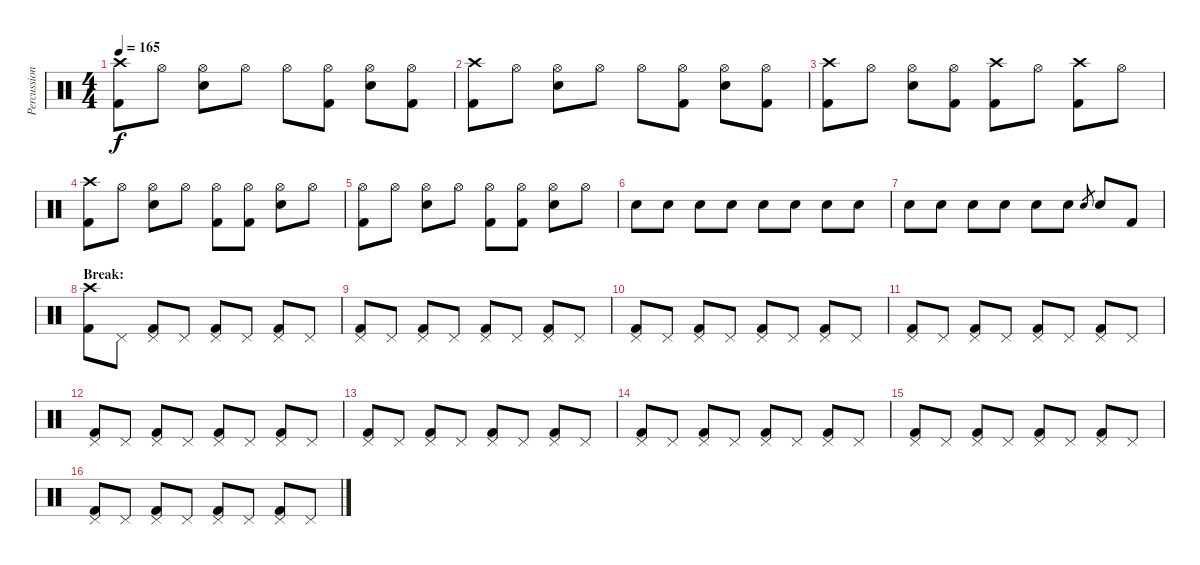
\track ("Percussion" "Percussion") {instrument percussion}
\staff {score}
\articulation defaults
\ts (4 4)
\tempo 165
\clef neutral
\ks c
("Crash high (hit)" "Kick (hit) 2").8{dy f} "Hi-Hat (open)".8 ("Hi-Hat (open)" "Snare (hit) 2").8 "Hi-Hat (open)".8 "Hi-Hat (open)".8 ("Hi-Hat (open)" "Kick (hit) 2").8 ("Hi-Hat (open)" "Snare (hit) 2").8 ("Hi-Hat (open)" "Kick (hit) 2").8 |
("Crash high (hit)" "Kick (hit) 2").8 "Hi-Hat (open)".8 ("Hi-Hat (open)" "Snare (hit) 2").8 "Hi-Hat (open)".8 "Hi-Hat (open)".8 ("Hi-Hat (open)" "Kick (hit) 2").8 ("Hi-Hat (open)" "Snare (hit) 2").8 ("Hi-Hat (open)" "Kick (hit) 2").8 |
("Crash high (hit)" "Kick (hit) 2").8 "Hi-Hat (open)".8 ("Hi-Hat (open)" "Snare (hit) 2").8 ("Hi-Hat (open)" "Kick (hit) 2").8 ("Crash high (hit)" "Kick (hit) 2").8 "Hi-Hat (open)".8 ("Crash high (hit)" "Kick (hit) 2").8 "Hi-Hat (open)".8 |
("Crash high (hit)" "Kick (hit) 2").8 "Hi-Hat (open)".8 ("Hi-Hat (open)" "Snare (hit) 2").8 "Hi-Hat (open)".8 ("Hi-Hat (open)" "Kick (hit) 2").8 ("Hi-Hat (open)" "Kick (hit) 2").8 ("Hi-Hat (open)" "Snare (hit) 2").8 "Hi-Hat (open)".8 |
("Hi-Hat (open)" "Kick (hit) 2").8 "Hi-Hat (open)".8 ("Hi-Hat (open)" "Snare (hit) 2").8 "Hi-Hat (open)".8 ("Hi-Hat (open)" "Kick (hit) 2").8 ("Hi-Hat (open)" "Kick (hit) 2").8 ("Hi-Hat (open)" "Snare (hit) 2").8 "Hi-Hat (open)".8 |
"Snare (hit) 2".8 "Snare (hit) 2".8 "Snare (hit) 2".8 "Snare (hit) 2".8 "Snare (hit) 2".8 "Snare (hit) 2".8 "Snare (hit) 2".8 "Snare (hit) 2".8 |
"Snare (hit) 2".8 "Snare (hit) 2".8 "Snare (hit) 2".8 "Snare (hit) 2".8 "Snare (hit) 2".8 "Snare (hit) 2".8 "Snare (hit) 2".8{gr} "Snare (hit) 2".8 "Kick (hit) 2".8 |
\section ("" "Break:")
("Crash high (hit)" "Kick (hit) 2").8 "Pedal Hi-Hat (hit)".8 ("Pedal Hi-Hat (hit)" "Kick (hit) 2").8 "Pedal Hi-Hat (hit)".8 ("Pedal Hi-Hat (hit)" "Kick (hit) 2").8 "Pedal Hi-Hat (hit)".8 ("Pedal Hi-Hat (hit)" "Kick (hit) 2").8 "Pedal Hi-Hat (hit)".8 |
("Pedal Hi-Hat (hit)" "Kick (hit) 2").8 "Pedal Hi-Hat (hit)".8 ("Pedal Hi-Hat (hit)" "Kick (hit) 2").8 "Pedal Hi-Hat (hit)".8 ("Pedal Hi-Hat (hit)" "Kick (hit) 2").8 "Pedal Hi-Hat (hit)".8 ("Pedal Hi-Hat (hit)" "Kick (hit) 2").8 "Pedal Hi-Hat (hit)".8 |
("Pedal Hi-Hat (hit)" "Kick (hit) 2").8 "Pedal Hi-Hat (hit)".8 ("Pedal Hi-Hat (hit)" "Kick (hit) 2").8 "Pedal Hi-Hat (hit)".8 ("Pedal Hi-Hat (hit)" "Kick (hit) 2").8 "Pedal Hi-Hat (hit)".8 ("Pedal Hi-Hat (hit)" "Kick (hit) 2").8 "Pedal Hi-Hat (hit)".8 |
("Pedal Hi-Hat (hit)" "Kick (hit) 2").8 "Pedal Hi-Hat (hit)".8 ("Pedal Hi-Hat (hit)" "Kick (hit) 2").8 "Pedal Hi-Hat (hit)".8 ("Pedal Hi-Hat (hit)" "Kick (hit) 2").8 "Pedal Hi-Hat (hit)".8 ("Pedal Hi-Hat (hit)" "Kick (hit) 2").8 "Pedal Hi-Hat (hit)".8 |
("Pedal Hi-Hat (hit)" "Kick (hit) 2").8 "Pedal Hi-Hat (hit)".8 ("Pedal Hi-Hat (hit)" "Kick (hit) 2").8 "Pedal Hi-Hat (hit)".8 ("Pedal Hi-Hat (hit)" "Kick (hit) 2").8 "Pedal Hi-Hat (hit)".8 ("Pedal Hi-Hat (hit)" "Kick (hit) 2").8 "Pedal Hi-Hat (hit)".8 |
("Pedal Hi-Hat (hit)" "Kick (hit) 2").8 "Pedal Hi-Hat (hit)".8 ("Pedal Hi-Hat (hit)" "Kick (hit) 2").8 "Pedal Hi-Hat (hit)".8 ("Pedal Hi-Hat (hit)" "Kick (hit) 2").8 "Pedal Hi-Hat (hit)".8 ("Pedal Hi-Hat (hit)" "Kick (hit) 2").8 "Pedal Hi-Hat (hit)".8 |
("Pedal Hi-Hat (hit)" "Kick (hit) 2").8 "Pedal Hi-Hat (hit)".8 ("Pedal Hi-Hat (hit)" "Kick (hit) 2").8 "Pedal Hi-Hat (hit)".8 ("Pedal Hi-Hat (hit)" "Kick (hit) 2").8 "Pedal Hi-Hat (hit)".8 ("Pedal Hi-Hat (hit)" "Kick (hit) 2").8 "Pedal Hi-Hat (hit)".8 |
("Pedal Hi-Hat (hit)" "Kick (hit) 2").8 "Pedal Hi-Hat (hit)".8 ("Pedal Hi-Hat (hit)" "Kick (hit) 2").8 "Pedal Hi-Hat (hit)".8 ("Pedal Hi-Hat (hit)" "Kick (hit) 2").8 "Pedal Hi-Hat (hit)".8 ("Pedal Hi-Hat (hit)" "Kick (hit) 2").8 "Pedal Hi-Hat (hit)".8 |
("Pedal Hi-Hat (hit)" "Kick (hit) 2").8 "Pedal Hi-Hat (hit)".8 ("Pedal Hi-Hat (hit)" "Kick (hit) 2").8 "Pedal Hi-Hat (hit)".8 ("Pedal Hi-Hat (hit)" "Kick (hit) 2").8 "Pedal Hi-Hat (hit)".8 ("Pedal Hi-Hat (hit)" "Kick (hit) 2").8 "Pedal Hi-Hat (hit)".8
